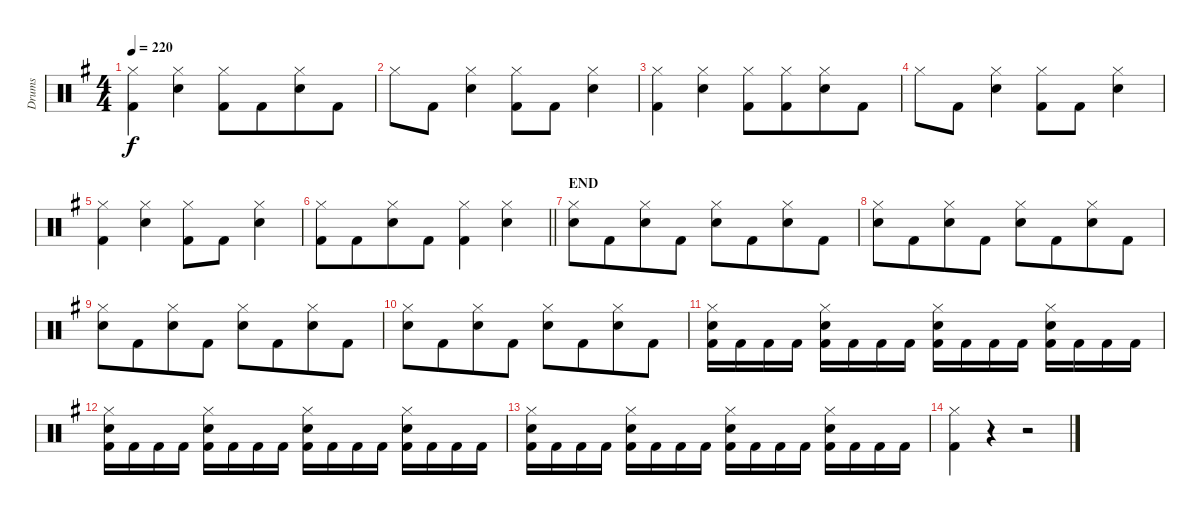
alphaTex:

\track ("Drums" "Drums") {instrument percussion}
\staff {score}
\articulation defaults
\ts (4 4)
\tempo 220
\clef neutral
\ks eminor
("Hi-Hat (closed)" "Kick (hit) 2").4{dy f} ("Hi-Hat (closed)" "Electric Snare (hit)").4 ("Hi-Hat (closed)" "Kick (hit) 2").8 "Kick (hit) 2".8{beam merge} ("Hi-Hat (closed)" "Electric Snare (hit)").8 "Kick (hit) 2".8 |
"Hi-Hat (closed)".8 "Kick (hit) 2".8 ("Hi-Hat (closed)" "Electric Snare (hit)").4 ("Hi-Hat (closed)" "Kick (hit) 2").8 "Kick (hit) 2".8 ("Hi-Hat (closed)" "Electric Snare (hit)").4 |
("Hi-Hat (closed)" "Kick (hit) 2").4 ("Hi-Hat (closed)" "Electric Snare (hit)").4 ("Hi-Hat (closed)" "Kick (hit) 2").8 ("Hi-Hat (closed)" "Kick (hit) 2").8{beam merge} ("Hi-Hat (closed)" "Electric Snare (hit)").8 "Kick (hit) 2".8 |
"Hi-Hat (closed)".8 "Kick (hit) 2".8 ("Hi-Hat (closed)" "Electric Snare (hit)").4 ("Hi-Hat (closed)" "Kick (hit) 2").8 "Kick (hit) 2".8 ("Hi-Hat (closed)" "Electric Snare (hit)").4 |
("Hi-Hat (closed)" "Kick (hit) 2").4 ("Hi-Hat (closed)" "Electric Snare (hit)").4 ("Hi-Hat (closed)" "Kick (hit) 2").8 "Kick (hit) 2".8{beam merge} ("Hi-Hat (closed)" "Electric Snare (hit)").4 |
\barLineRight lightlight
("Hi-Hat (closed)" "Kick (hit) 2").8 "Kick (hit) 2".8{beam merge} ("Hi-Hat (closed)" "Electric Snare (hit)").8 "Kick (hit) 2".8 ("Hi-Hat (closed)" "Kick (hit) 2").4 ("Hi-Hat (closed)" "Electric Snare (hit)").4 |
\section ("" "END")
("Hi-Hat (closed)" "Electric Snare (hit)").8 "Kick (hit) 2".8{beam merge} ("Hi-Hat (closed)" "Electric Snare (hit)").8 "Kick (hit) 2".8 ("Hi-Hat (closed)" "Electric Snare (hit)").8 "Kick (hit) 2".8{beam merge} ("Hi-Hat (closed)" "Electric Snare (hit)").8 "Kick (hit) 2".8 |
("Hi-Hat (closed)" "Electric Snare (hit)").8 "Kick (hit) 2".8{beam merge} ("Hi-Hat (closed)" "Electric Snare (hit)").8 "Kick (hit) 2".8 ("Hi-Hat (closed)" "Electric Snare (hit)").8 "Kick (hit) 2".8{beam merge} ("Hi-Hat (closed)" "Electric Snare (hit)").8 "Kick (hit) 2".8 |
("Hi-Hat (closed)" "Electric Snare (hit)").8 "Kick (hit) 2".8{beam merge} ("Hi-Hat (closed)" "Electric Snare (hit)").8 "Kick (hit) 2".8 ("Hi-Hat (closed)" "Electric Snare (hit)").8 "Kick (hit) 2".8{beam merge} ("Hi-Hat (closed)" "Electric Snare (hit)").8 "Kick (hit) 2".8 |
("Hi-Hat (closed)" "Electric Snare (hit)").8 "Kick (hit) 2".8{beam merge} ("Hi-Hat (closed)" "Electric Snare (hit)").8 "Kick (hit) 2".8 ("Hi-Hat (closed)" "Electric Snare (hit)").8 "Kick (hit) 2".8{beam merge} ("Hi-Hat (closed)" "Electric Snare (hit)").8 "Kick (hit) 2".8 |
("Hi-Hat (closed)" "Electric Snare (hit)" "Kick (hit) 2").16 "Kick (hit) 2".16 "Kick (hit) 2".16 "Kick (hit) 2".16 ("Hi-Hat (closed)" "Electric Snare (hit)" "Kick (hit) 2").16 "Kick (hit) 2".16 "Kick (hit) 2".16 "Kick (hit) 2".16 ("Hi-Hat (closed)" "Electric Snare (hit)" "Kick (hit) 2").16 "Kick (hit) 2".16 "Kick (hit) 2".16 "Kick (hit) 2".16 ("Hi-Hat (closed)" "Electric Snare (hit)" "Kick (hit) 2").16 "Kick (hit) 2".16 "Kick (hit) 2".16 "Kick (hit) 2".16 |
("Hi-Hat (closed)" "Electric Snare (hit)" "Kick (hit) 2").16 "Kick (hit) 2".16 "Kick (hit) 2".16 "Kick (hit) 2".16 ("Hi-Hat (closed)" "Electric Snare (hit)" "Kick (hit) 2").16 "Kick (hit) 2".16 "Kick (hit) 2".16 "Kick (hit) 2".16 ("Hi-Hat (closed)" "Electric Snare (hit)" "Kick (hit) 2").16 "Kick (hit) 2".16 "Kick (hit) 2".16 "Kick (hit) 2".16 ("Hi-Hat (closed)" "Electric Snare (hit)" "Kick (hit) 2").16 "Kick (hit) 2".16 "Kick (hit) 2".16 "Kick (hit) 2".16 |
("Hi-Hat (closed)" "Electric Snare (hit)" "Kick (hit) 2").16 "Kick (hit) 2".16 "Kick (hit) 2".16 "Kick (hit) 2".16 ("Hi-Hat (closed)" "Electric Snare (hit)" "Kick (hit) 2").16 "Kick (hit) 2".16 "Kick (hit) 2".16 "Kick (hit) 2".16 ("Hi-Hat (closed)" "Electric Snare (hit)" "Kick (hit) 2").16 "Kick (hit) 2".16 "Kick (hit) 2".16 "Kick (hit) 2".16 ("Hi-Hat (closed)" "Electric Snare (hit)" "Kick (hit) 2").16 "Kick (hit) 2".16 "Kick (hit) 2".16 "Kick (hit) 2".16 |
("Hi-Hat (closed)" "Kick (hit) 2").4 r.4 r.2
